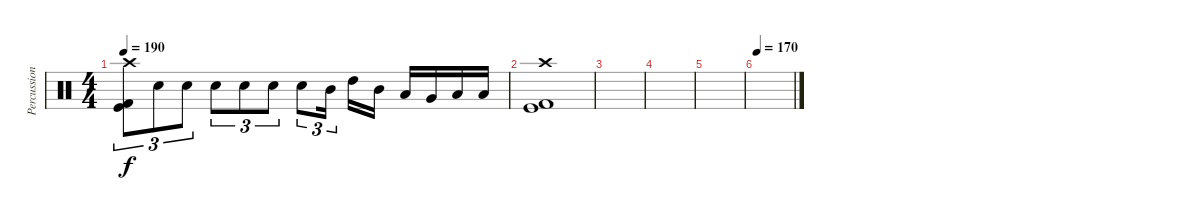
\track ("Percussions" "Percussion") {instrument percussion}
\staff {score}
\articulation defaults
\ts (4 4)
\tempo 190
\clef neutral
\ks c
("Crash high (hit)" "Kick (hit)" "Kick (hit) 2").8{tu (3 2) dy f} "Electric Snare (hit)".8{tu (3 2)} "Electric Snare (hit)".8{tu (3 2)} "Electric Snare (hit)".8{tu (3 2)} "Electric Snare (hit)".8{tu (3 2)} "Electric Snare (hit)".8{tu (3 2)} "Electric Snare (hit)".8{tu (3 2)} "Mid Tom (hit)".16{tu (3 2) beam splitsecondary} "High Tom (hit)".16 "Mid Tom (hit)".16 "Low Tom (hit)".16 "Very Low Tom (hit)".16 "Low Floor Tom (hit)".16 "Low Floor Tom (hit)".16 |
("Crash high (hit)" "Kick (hit)" "Kick (hit) 2").1 |
|
|
|
\tempo 170
